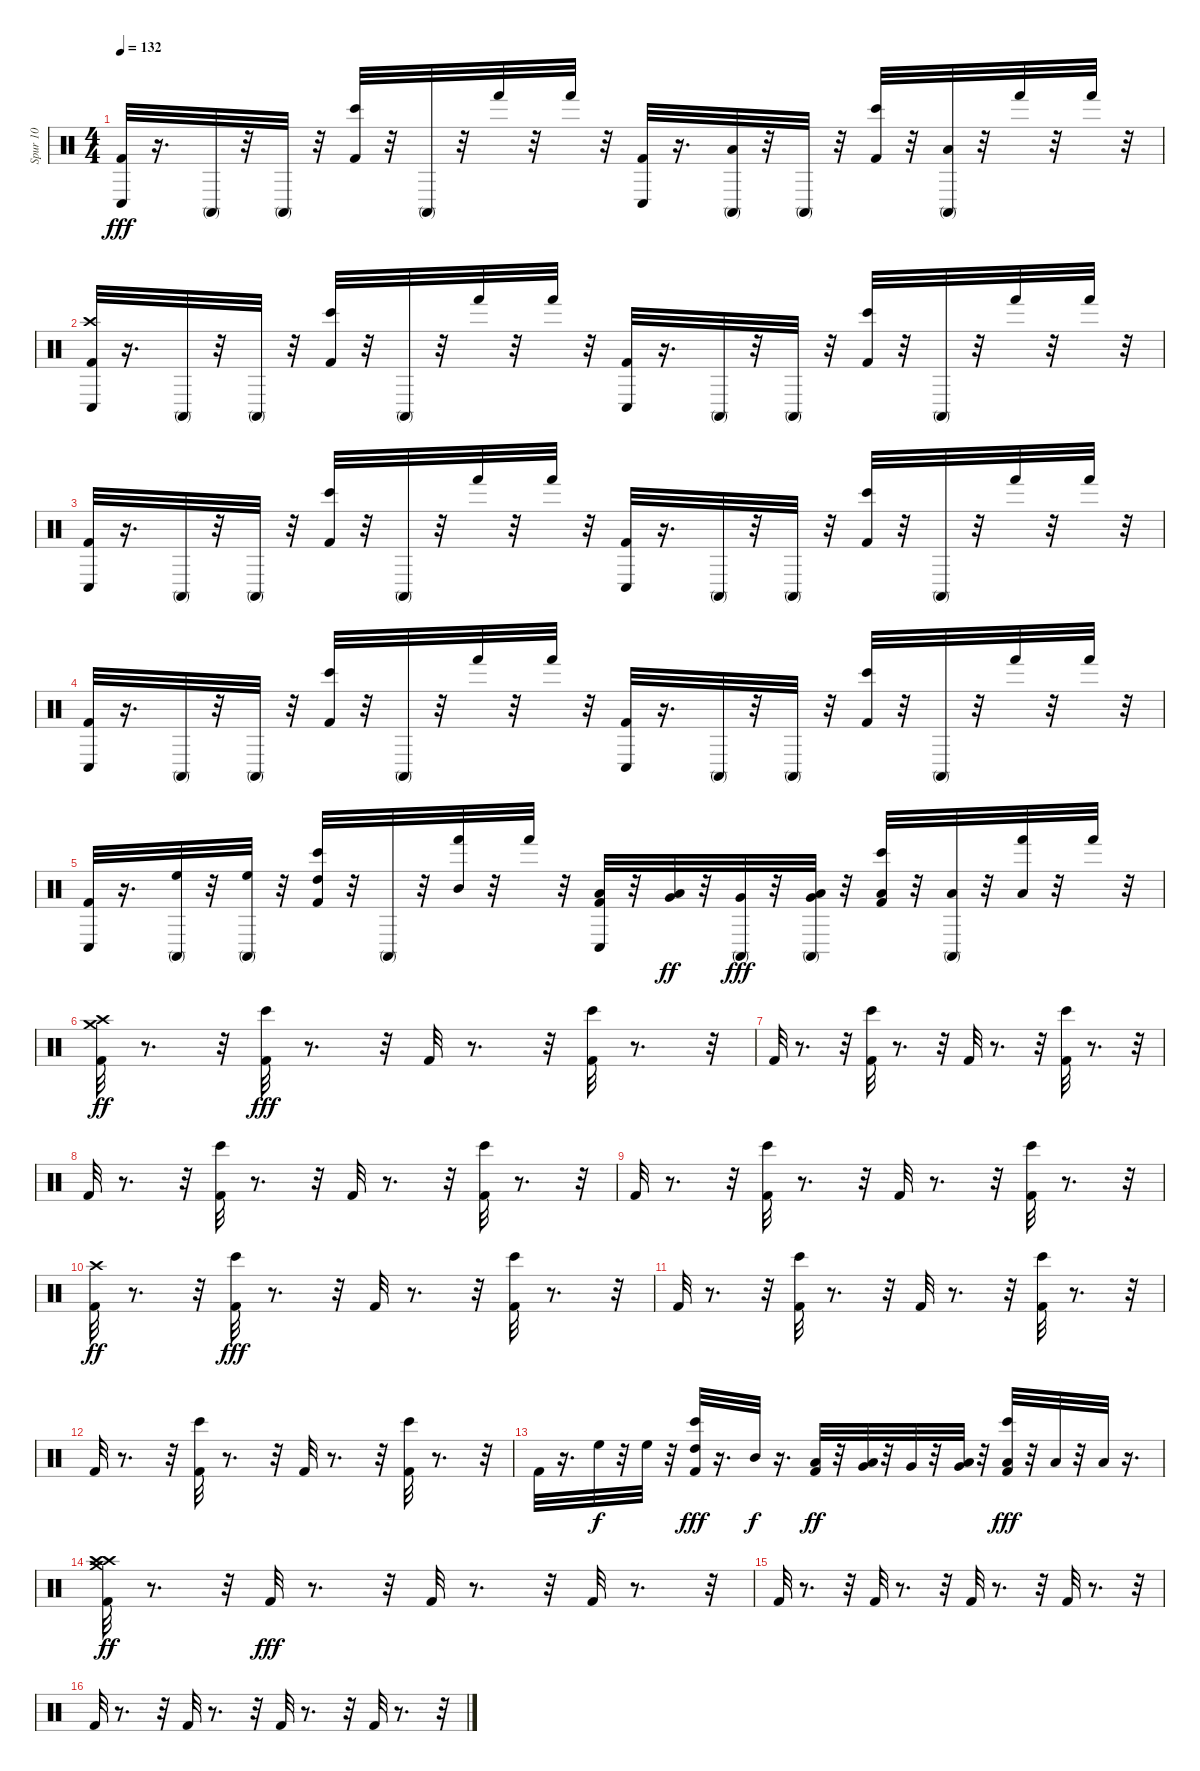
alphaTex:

\track ("Spur 10" "Spur 10") {instrument percussion}
\staff {score}
\articulation defaults
\ts (4 4)
\tempo 132
\clef neutral
\ks c
("Kick (hit) 2" "Conga low (hit)").32{dy fff} r.16{d} "Conga high (mute)".32 r.32 "Conga high (mute)".32 r.32 ("Bongo High (hit)" "Kick (hit) 2").32 r.32 "Conga high (mute)".32 r.32 "Hand (hit)".32 r.32 "Hand (hit)".32 r.32 ("Kick (hit) 2" "Conga low (hit)").32 r.16{d} ("Low Tom (hit)" "Conga high (mute)").32 r.32 "Conga high (mute)".32 r.32 ("Bongo High (hit)" "Kick (hit) 2").32 r.32 ("Low Floor Tom (hit)" "Conga high (mute)").32 r.32 "Hand (hit)".32 r.32 "Hand (hit)".32 r.32 |
("Kick (hit) 2" "Crash high (hit)" "Conga low (hit)").32 r.16{d} "Conga high (mute)".32 r.32 "Conga high (mute)".32 r.32 ("Bongo High (hit)" "Kick (hit) 2").32 r.32 "Conga high (mute)".32 r.32 "Hand (hit)".32 r.32 "Hand (hit)".32 r.32 ("Kick (hit) 2" "Conga low (hit)").32 r.16{d} "Conga high (mute)".32 r.32 "Conga high (mute)".32 r.32 ("Bongo High (hit)" "Kick (hit) 2").32 r.32 "Conga high (mute)".32 r.32 "Hand (hit)".32 r.32 "Hand (hit)".32 r.32 |
("Kick (hit) 2" "Conga low (hit)").32 r.16{d} "Conga high (mute)".32 r.32 "Conga high (mute)".32 r.32 ("Bongo High (hit)" "Kick (hit) 2").32 r.32 "Conga high (mute)".32 r.32 "Hand (hit)".32 r.32 "Hand (hit)".32 r.32 ("Kick (hit) 2" "Conga low (hit)").32 r.16{d} "Conga high (mute)".32 r.32 "Conga high (mute)".32 r.32 ("Bongo High (hit)" "Kick (hit) 2").32 r.32 "Conga high (mute)".32 r.32 "Hand (hit)".32 r.32 "Hand (hit)".32 r.32 |
("Kick (hit) 2" "Conga low (hit)").32 r.16{d} "Conga high (mute)".32 r.32 "Conga high (mute)".32 r.32 ("Bongo High (hit)" "Kick (hit) 2").32 r.32 "Conga high (mute)".32 r.32 "Hand (hit)".32 r.32 "Hand (hit)".32 r.32 ("Kick (hit) 2" "Conga low (hit)").32 r.16{d} "Conga high (mute)".32 r.32 "Conga high (mute)".32 r.32 ("Bongo High (hit)" "Kick (hit) 2").32 r.32 "Conga high (mute)".32 r.32 "Hand (hit)".32 r.32 "Hand (hit)".32 r.32 |
("Kick (hit) 2" "Conga low (hit)").32 r.16{d} ("High Floor Tom (hit)" "Conga high (mute)").32 r.32 ("High Floor Tom (hit)" "Conga high (mute)").32 r.32 ("Bongo High (hit)" "Kick (hit) 2" "High Tom (hit)").32 r.32 "Conga high (mute)".32 r.32 ("Mid Tom (hit)" "Hand (hit)").32 r.32 "Hand (hit)".32 r.32 ("Kick (hit) 2" "Low Tom (hit)" "Conga low (hit)").32 r.32 ("Very Low Tom (hit)" "Low Tom (hit)").32{dy ff} r.32 ("Very Low Tom (hit)" "Conga high (mute)").32{dy fff} r.32 ("Very Low Tom (hit)" "Low Floor Tom (hit)" "Conga high (mute)").32 r.32 ("Bongo High (hit)" "Kick (hit) 2" "Low Floor Tom (hit)").32 r.32 ("Low Floor Tom (hit)" "Conga high (mute)").32 r.32 ("Low Floor Tom (hit)" "Hand (hit)").32 r.32 "Hand (hit)".32 r.32 |
("Crash medium (hit)" "Kick (hit) 2" "Crash high (hit)").32{dy ff} r.8{d} r.32 ("Bongo High (hit)" "Kick (hit) 2").32{dy fff} r.8{d} r.32 "Kick (hit) 2".32 r.8{d} r.32 ("Bongo High (hit)" "Kick (hit) 2").32 r.8{d} r.32 |
"Kick (hit) 2".32 r.8{d} r.32 ("Bongo High (hit)" "Kick (hit) 2").32 r.8{d} r.32 "Kick (hit) 2".32 r.8{d} r.32 ("Bongo High (hit)" "Kick (hit) 2").32 r.8{d} r.32 |
"Kick (hit) 2".32 r.8{d} r.32 ("Bongo High (hit)" "Kick (hit) 2").32 r.8{d} r.32 "Kick (hit) 2".32 r.8{d} r.32 ("Bongo High (hit)" "Kick (hit) 2").32 r.8{d} r.32 |
"Kick (hit) 2".32 r.8{d} r.32 ("Bongo High (hit)" "Kick (hit) 2").32 r.8{d} r.32 "Kick (hit) 2".32 r.8{d} r.32 ("Bongo High (hit)" "Kick (hit) 2").32 r.8{d} r.32 |
("Kick (hit) 2" "Crash high (hit)").32{dy ff} r.8{d} r.32 ("Bongo High (hit)" "Kick (hit) 2").32{dy fff} r.8{d} r.32 "Kick (hit) 2".32 r.8{d} r.32 ("Bongo High (hit)" "Kick (hit) 2").32 r.8{d} r.32 |
"Kick (hit) 2".32 r.8{d} r.32 ("Bongo High (hit)" "Kick (hit) 2").32 r.8{d} r.32 "Kick (hit) 2".32 r.8{d} r.32 ("Bongo High (hit)" "Kick (hit) 2").32 r.8{d} r.32 |
"Kick (hit) 2".32 r.8{d} r.32 ("Bongo High (hit)" "Kick (hit) 2").32 r.8{d} r.32 "Kick (hit) 2".32 r.8{d} r.32 ("Bongo High (hit)" "Kick (hit) 2").32 r.8{d} r.32 |
"Kick (hit) 2".32 r.16{d} "High Floor Tom (hit)".32{dy f} r.32 "High Floor Tom (hit)".32 r.32 ("Bongo High (hit)" "Kick (hit) 2" "High Tom (hit)").32{dy fff} r.16{d} "Mid Tom (hit)".32{dy f} r.16{d} ("Kick (hit) 2" "Low Tom (hit)").32{dy ff} r.32 ("Very Low Tom (hit)" "Low Tom (hit)").32 r.32 "Very Low Tom (hit)".32 r.32 ("Very Low Tom (hit)" "Low Floor Tom (hit)").32 r.32 ("Bongo High (hit)" "Kick (hit) 2" "Low Floor Tom (hit)").32{dy fff} r.32 "Low Floor Tom (hit)".32 r.32 "Low Floor Tom (hit)".32 r.16{d} |
("Crash medium (hit)" "Kick (hit) 2" "Crash high (hit)" "Crash high (hit)").32{dy ff} r.8{d} r.32 "Kick (hit) 2".32{dy fff} r.8{d} r.32 "Kick (hit) 2".32 r.8{d} r.32 "Kick (hit) 2".32 r.8{d} r.32 |
"Kick (hit) 2".32 r.8{d} r.32 "Kick (hit) 2".32 r.8{d} r.32 "Kick (hit) 2".32 r.8{d} r.32 "Kick (hit) 2".32 r.8{d} r.32 |
"Kick (hit) 2".32 r.8{d} r.32 "Kick (hit) 2".32 r.8{d} r.32 "Kick (hit) 2".32 r.8{d} r.32 "Kick (hit) 2".32 r.8{d} r.32
